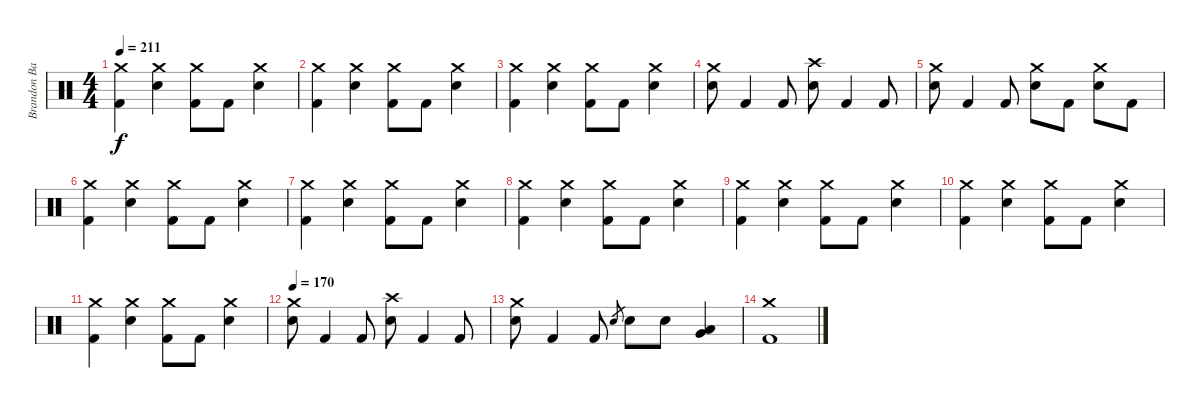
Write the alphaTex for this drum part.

\track ("Brandon Barnes - Drums" "Brandon Ba") {instrument percussion}
\staff {score}
\articulation defaults
\ts (4 4)
\tempo 211
\clef neutral
\ks c
("Crash medium (hit)" "Kick (hit) 2").4{dy f} ("Crash medium (hit)" "Electric Snare (hit)").4 ("Crash medium (hit)" "Kick (hit) 2").8 "Kick (hit) 2".8 ("Crash medium (hit)" "Electric Snare (hit)").4 |
("Crash medium (hit)" "Kick (hit) 2").4 ("Crash medium (hit)" "Electric Snare (hit)").4 ("Crash medium (hit)" "Kick (hit) 2").8 "Kick (hit) 2".8 ("Crash medium (hit)" "Electric Snare (hit)").4 |
("Crash medium (hit)" "Kick (hit) 2").4 ("Crash medium (hit)" "Electric Snare (hit)").4 ("Crash medium (hit)" "Kick (hit) 2").8 "Kick (hit) 2".8 ("Crash medium (hit)" "Electric Snare (hit)").4 |
("Crash medium (hit)" "Electric Snare (hit)").8 "Kick (hit) 2".4 "Kick (hit) 2".8 ("Crash high (hit)" "Electric Snare (hit)").8 "Kick (hit) 2".4 "Kick (hit) 2".8 |
("Crash medium (hit)" "Electric Snare (hit)").8 "Kick (hit) 2".4 "Kick (hit) 2".8 ("Crash medium (hit)" "Electric Snare (hit)").8 "Kick (hit) 2".8 ("Crash medium (hit)" "Electric Snare (hit)").8 "Kick (hit) 2".8 |
("Crash medium (hit)" "Kick (hit) 2").4 ("Crash medium (hit)" "Electric Snare (hit)").4 ("Crash medium (hit)" "Kick (hit) 2").8 "Kick (hit) 2".8 ("Crash medium (hit)" "Electric Snare (hit)").4 |
("Crash medium (hit)" "Kick (hit) 2").4 ("Crash medium (hit)" "Electric Snare (hit)").4 ("Crash medium (hit)" "Kick (hit) 2").8 "Kick (hit) 2".8 ("Crash medium (hit)" "Electric Snare (hit)").4 |
("Crash medium (hit)" "Kick (hit) 2").4 ("Crash medium (hit)" "Electric Snare (hit)").4 ("Crash medium (hit)" "Kick (hit) 2").8 "Kick (hit) 2".8 ("Crash medium (hit)" "Electric Snare (hit)").4 |
("Crash medium (hit)" "Kick (hit) 2").4 ("Crash medium (hit)" "Electric Snare (hit)").4 ("Crash medium (hit)" "Kick (hit) 2").8 "Kick (hit) 2".8 ("Crash medium (hit)" "Electric Snare (hit)").4 |
("Crash medium (hit)" "Kick (hit) 2").4 ("Crash medium (hit)" "Electric Snare (hit)").4 ("Crash medium (hit)" "Kick (hit) 2").8 "Kick (hit) 2".8 ("Crash medium (hit)" "Electric Snare (hit)").4 |
("Crash medium (hit)" "Kick (hit) 2").4 ("Crash medium (hit)" "Electric Snare (hit)").4 ("Crash medium (hit)" "Kick (hit) 2").8 "Kick (hit) 2".8 ("Crash medium (hit)" "Electric Snare (hit)").4 |
\tempo 170
("Crash medium (hit)" "Electric Snare (hit)").8 "Kick (hit) 2".4 "Kick (hit) 2".8 ("Crash high (hit)" "Electric Snare (hit)").8 "Kick (hit) 2".4 "Kick (hit) 2".8 |
("Crash medium (hit)" "Electric Snare (hit)").8 "Kick (hit) 2".4 "Kick (hit) 2".8 "Electric Snare (hit)".8{gr} "Electric Snare (hit)".8 "Electric Snare (hit)".8 ("Low Tom (hit)" "Very Low Tom (hit)").4 |
("Crash medium (hit)" "Kick (hit) 2").1
